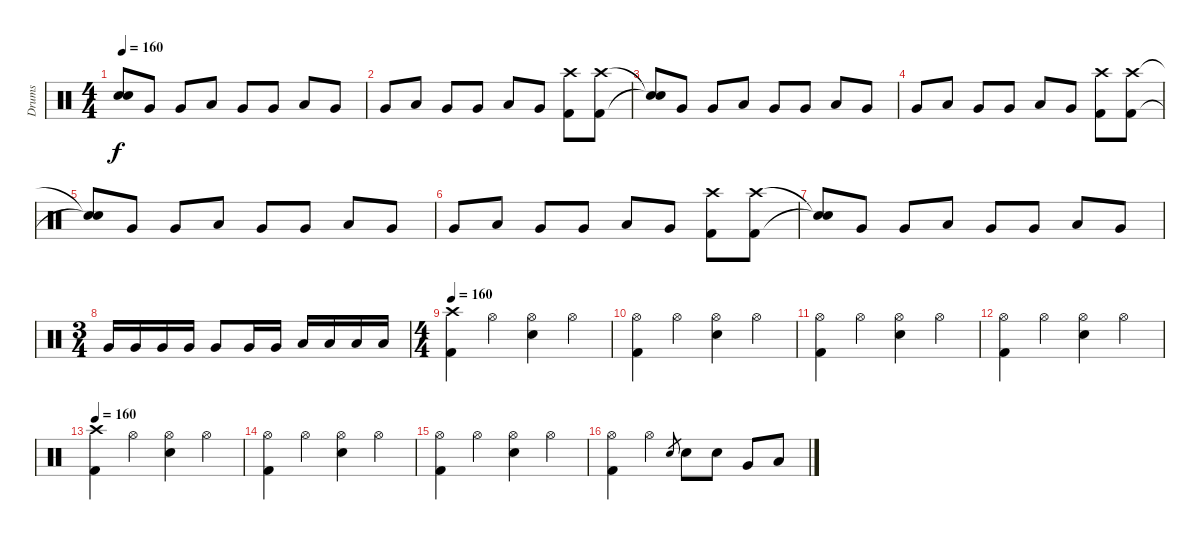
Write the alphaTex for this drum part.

\track ("Drums" "Drums") {instrument percussion}
\staff {score}
\articulation defaults
\ts (4 4)
\tempo 160
\clef neutral
\ks c
("Snare (hit)"{t} "Snare (hit)"{t}).8{dy f} "Very Low Tom (hit)".8 "Very Low Tom (hit)".8 "Low Floor Tom (hit)".8 "Very Low Tom (hit)".8 "Very Low Tom (hit)".8 "Low Floor Tom (hit)".8 "Very Low Tom (hit)".8 |
"Very Low Tom (hit)".8 "Low Floor Tom (hit)".8 "Very Low Tom (hit)".8 "Very Low Tom (hit)".8 "Low Floor Tom (hit)".8 "Very Low Tom (hit)".8 ("Crash high (hit)" "Kick (hit) 2").8 ("Crash high (hit)" "Kick (hit) 2").8 |
("Snare (hit)"{t} "Snare (hit)"{t}).8 "Very Low Tom (hit)".8 "Very Low Tom (hit)".8 "Low Floor Tom (hit)".8 "Very Low Tom (hit)".8 "Very Low Tom (hit)".8 "Low Floor Tom (hit)".8 "Very Low Tom (hit)".8 |
"Very Low Tom (hit)".8 "Low Floor Tom (hit)".8 "Very Low Tom (hit)".8 "Very Low Tom (hit)".8 "Low Floor Tom (hit)".8 "Very Low Tom (hit)".8 ("Crash high (hit)" "Kick (hit) 2").8 ("Crash high (hit)" "Kick (hit) 2").8 |
("Snare (hit)"{t} "Snare (hit)"{t}).8 "Very Low Tom (hit)".8 "Very Low Tom (hit)".8 "Low Floor Tom (hit)".8 "Very Low Tom (hit)".8 "Very Low Tom (hit)".8 "Low Floor Tom (hit)".8 "Very Low Tom (hit)".8 |
"Very Low Tom (hit)".8 "Low Floor Tom (hit)".8 "Very Low Tom (hit)".8 "Very Low Tom (hit)".8 "Low Floor Tom (hit)".8 "Very Low Tom (hit)".8 ("Crash high (hit)" "Kick (hit) 2").8 ("Crash high (hit)" "Kick (hit) 2").8 |
("Snare (hit)"{t} "Snare (hit)"{t}).8 "Very Low Tom (hit)".8 "Very Low Tom (hit)".8 "Low Floor Tom (hit)".8 "Very Low Tom (hit)".8 "Very Low Tom (hit)".8 "Low Floor Tom (hit)".8 "Very Low Tom (hit)".8 |
\ts (3 4)
"Very Low Tom (hit)".16 "Very Low Tom (hit)".16 "Very Low Tom (hit)".16 "Very Low Tom (hit)".16 "Very Low Tom (hit)".8 "Very Low Tom (hit)".16 "Very Low Tom (hit)".16 "Low Floor Tom (hit)".16 "Low Floor Tom (hit)".16 "Low Floor Tom (hit)".16 "Low Floor Tom (hit)".16 |
\ts (4 4)
\section ("" "")
\tempo 160
("Crash high (hit)" "Kick (hit) 2").4 "Hi-Hat (open)".4 ("Hi-Hat (open)" "Electric Snare (hit)").4 "Hi-Hat (open)".4 |
("Hi-Hat (open)" "Kick (hit) 2").4 "Hi-Hat (open)".4 ("Hi-Hat (open)" "Electric Snare (hit)").4 "Hi-Hat (open)".4 |
("Hi-Hat (open)" "Kick (hit) 2").4 "Hi-Hat (open)".4 ("Hi-Hat (open)" "Electric Snare (hit)").4 "Hi-Hat (open)".4 |
("Hi-Hat (open)" "Kick (hit) 2").4 "Hi-Hat (open)".4 ("Hi-Hat (open)" "Electric Snare (hit)").4 "Hi-Hat (open)".4 |
\tempo 160
("Crash high (hit)" "Kick (hit) 2").4 "Hi-Hat (open)".4 ("Hi-Hat (open)" "Electric Snare (hit)").4 "Hi-Hat (open)".4 |
("Hi-Hat (open)" "Kick (hit) 2").4 "Hi-Hat (open)".4 ("Hi-Hat (open)" "Electric Snare (hit)").4 "Hi-Hat (open)".4 |
("Hi-Hat (open)" "Kick (hit) 2").4 "Hi-Hat (open)".4 ("Hi-Hat (open)" "Electric Snare (hit)").4 "Hi-Hat (open)".4 |
("Hi-Hat (open)" "Kick (hit) 2").4 "Hi-Hat (open)".4 "Electric Snare (hit)".8{gr} "Electric Snare (hit)".8 "Electric Snare (hit)".8 "Very Low Tom (hit)".8 "Low Floor Tom (hit)".8
